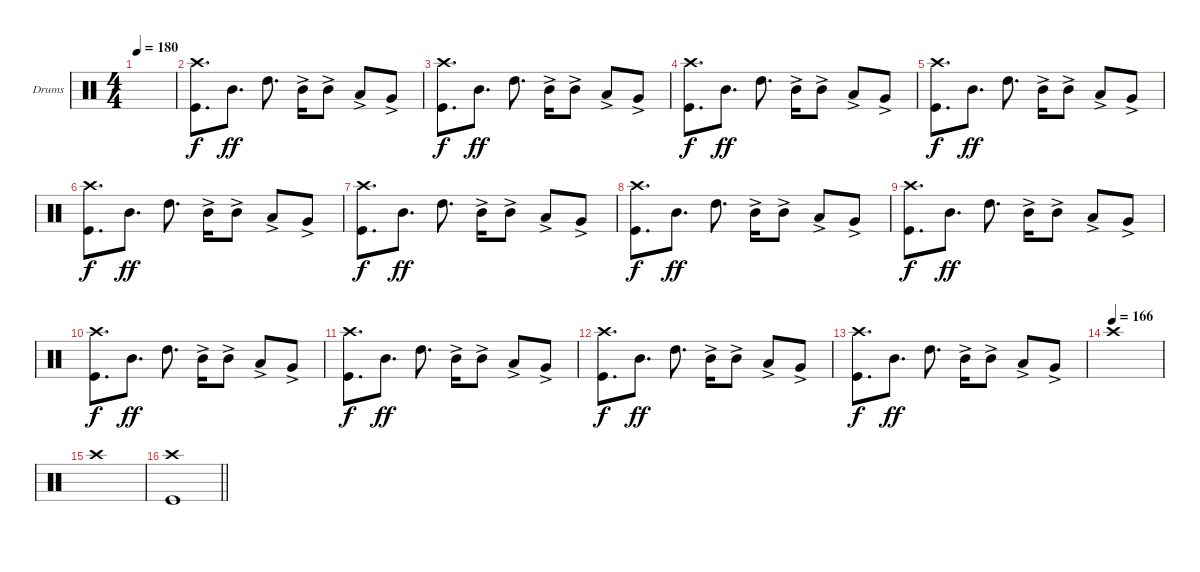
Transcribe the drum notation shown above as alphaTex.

\bracketExtendMode groupsimilarinstruments
\firstSystemTrackNameOrientation horizontal
\otherSystemsTrackNameOrientation horizontal
\track ("Drums" "Drums") {instrument percussion}
\staff {score}
\articulation defaults
\ts (4 4)
\tempo 180
\clef neutral
\ks c
|
("Crash high (hit)" "Kick (hit)").8{d} "Mid Tom (hit)".8{d dy ff} "High Tom (hit)".8{d} "Mid Tom (hit)"{ac}.16 "Mid Tom (hit)"{ac}.8 "Low Tom (hit)"{ac}.8 "Very Low Tom (hit)"{ac}.8 |
("Crash high (hit)" "Kick (hit)").8{d dy f} "Mid Tom (hit)".8{d dy ff} "High Tom (hit)".8{d} "Mid Tom (hit)"{ac}.16 "Mid Tom (hit)"{ac}.8 "Low Tom (hit)"{ac}.8 "Very Low Tom (hit)"{ac}.8 |
("Crash high (hit)" "Kick (hit)").8{d dy f} "Mid Tom (hit)".8{d dy ff} "High Tom (hit)".8{d} "Mid Tom (hit)"{ac}.16 "Mid Tom (hit)"{ac}.8 "Low Tom (hit)"{ac}.8 "Very Low Tom (hit)"{ac}.8 |
("Crash high (hit)" "Kick (hit)").8{d dy f} "Mid Tom (hit)".8{d dy ff} "High Tom (hit)".8{d} "Mid Tom (hit)"{ac}.16 "Mid Tom (hit)"{ac}.8 "Low Tom (hit)"{ac}.8 "Very Low Tom (hit)"{ac}.8 |
("Crash high (hit)" "Kick (hit)").8{d dy f} "Mid Tom (hit)".8{d dy ff} "High Tom (hit)".8{d} "Mid Tom (hit)"{ac}.16 "Mid Tom (hit)"{ac}.8 "Low Tom (hit)"{ac}.8 "Very Low Tom (hit)"{ac}.8 |
("Crash high (hit)" "Kick (hit)").8{d dy f} "Mid Tom (hit)".8{d dy ff} "High Tom (hit)".8{d} "Mid Tom (hit)"{ac}.16 "Mid Tom (hit)"{ac}.8 "Low Tom (hit)"{ac}.8 "Very Low Tom (hit)"{ac}.8 |
("Crash high (hit)" "Kick (hit)").8{d dy f} "Mid Tom (hit)".8{d dy ff} "High Tom (hit)".8{d} "Mid Tom (hit)"{ac}.16 "Mid Tom (hit)"{ac}.8 "Low Tom (hit)"{ac}.8 "Very Low Tom (hit)"{ac}.8 |
("Crash high (hit)" "Kick (hit)").8{d dy f} "Mid Tom (hit)".8{d dy ff} "High Tom (hit)".8{d} "Mid Tom (hit)"{ac}.16 "Mid Tom (hit)"{ac}.8 "Low Tom (hit)"{ac}.8 "Very Low Tom (hit)"{ac}.8 |
("Crash high (hit)" "Kick (hit)").8{d dy f} "Mid Tom (hit)".8{d dy ff} "High Tom (hit)".8{d} "Mid Tom (hit)"{ac}.16 "Mid Tom (hit)"{ac}.8 "Low Tom (hit)"{ac}.8 "Very Low Tom (hit)"{ac}.8 |
("Crash high (hit)" "Kick (hit)").8{d dy f} "Mid Tom (hit)".8{d dy ff} "High Tom (hit)".8{d} "Mid Tom (hit)"{ac}.16 "Mid Tom (hit)"{ac}.8 "Low Tom (hit)"{ac}.8 "Very Low Tom (hit)"{ac}.8 |
("Crash high (hit)" "Kick (hit)").8{d dy f} "Mid Tom (hit)".8{d dy ff} "High Tom (hit)".8{d} "Mid Tom (hit)"{ac}.16 "Mid Tom (hit)"{ac}.8 "Low Tom (hit)"{ac}.8 "Very Low Tom (hit)"{ac}.8 |
("Crash high (hit)" "Kick (hit)").8{d dy f} "Mid Tom (hit)".8{d dy ff} "High Tom (hit)".8{d} "Mid Tom (hit)"{ac}.16 "Mid Tom (hit)"{ac}.8 "Low Tom (hit)"{ac}.8 "Very Low Tom (hit)"{ac}.8 |
\tempo (166)
"Crash high (hit)".1 |
"Crash high (hit)".1 |
\barLineRight lightlight
("Crash high (hit)" "Kick (hit)").1
